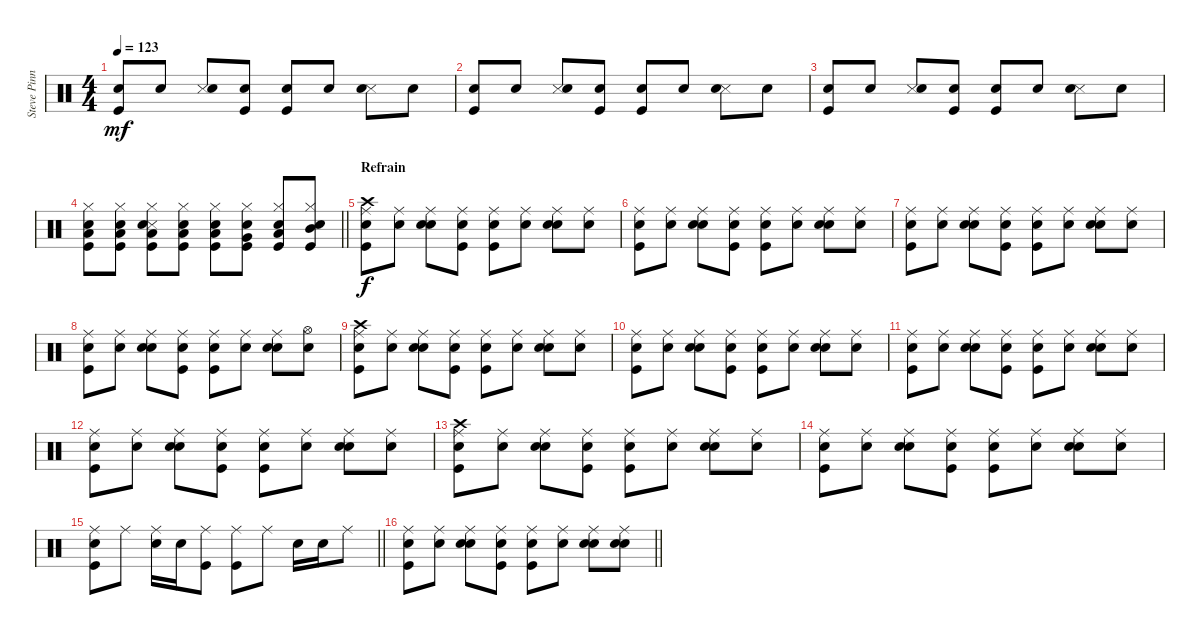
\track ("Steve Pinnell - Drums" "Steve Pinn") {instrument percussion}
\staff {score}
\articulation defaults
\ts (4 4)
\tempo 123
\clef neutral
\ks c
("Kick (hit)" "Snare (hit)").8{dy mf} "Snare (hit)".8 ("Snare (side stick) 3" "Snare (hit)").8 ("Kick (hit)" "Snare (hit)").8 ("Kick (hit)" "Snare (hit)").8 "Snare (hit)".8 ("Snare (side stick) 3" "Snare (hit)").8 "Snare (hit)".8 |
("Kick (hit)" "Snare (hit)").8 "Snare (hit)".8 ("Snare (side stick) 3" "Snare (hit)").8 ("Kick (hit)" "Snare (hit)").8 ("Kick (hit)" "Snare (hit)").8 "Snare (hit)".8 ("Snare (side stick) 3" "Snare (hit)").8 "Snare (hit)".8 |
("Kick (hit)" "Snare (hit)").8 "Snare (hit)".8 ("Snare (side stick) 3" "Snare (hit)").8 ("Kick (hit)" "Snare (hit)").8 ("Kick (hit)" "Snare (hit)").8 "Snare (hit)".8 ("Snare (side stick) 3" "Snare (hit)").8 "Snare (hit)".8 |
\barLineRight lightlight
("Low Floor Tom (hit)" "Kick (hit)" "Hi-Hat (closed)" "Snare (hit)").8 ("Low Floor Tom (hit)" "Kick (hit)" "Hi-Hat (closed)" "Snare (hit)").8 ("Snare (side stick) 3" "Low Floor Tom (hit)" "Kick (hit)" "Hi-Hat (closed)" "Snare (hit)").8 ("Low Floor Tom (hit)" "Kick (hit)" "Hi-Hat (closed)" "Snare (hit)").8 ("Low Floor Tom (hit)" "Kick (hit)" "Hi-Hat (closed)" "Snare (hit)").8 ("Very Low Tom (hit)" "Kick (hit)" "Hi-Hat (closed)" "Snare (hit)").8 ("Low Tom (hit)" "Kick (hit)" "Hi-Hat (closed)" "Snare (hit)").8 ("Mid Tom (hit)" "Kick (hit)" "Hi-Hat (closed)" "Snare (hit)").8 |
\section ("" "Refrain")
("Crash high (hit)" "Kick (hit)" "Ride (middle)" "Snare (hit)").8{dy f volume 14 balance 8} ("Ride (middle)" "Snare (hit)").8 ("Metronome (bell)" "Ride (middle)" "Snare (hit)").8 ("Kick (hit)" "Ride (middle)" "Snare (hit)").8 ("Kick (hit)" "Ride (middle)" "Snare (hit)").8 ("Ride (middle)" "Snare (hit)").8 ("Metronome (bell)" "Ride (middle)" "Snare (hit)").8 ("Ride (middle)" "Snare (hit)").8 |
("Kick (hit)" "Ride (middle)" "Snare (hit)").8 ("Ride (middle)" "Snare (hit)").8 ("Metronome (bell)" "Ride (middle)" "Snare (hit)").8 ("Kick (hit)" "Ride (middle)" "Snare (hit)").8 ("Kick (hit)" "Ride (middle)" "Snare (hit)").8 ("Ride (middle)" "Snare (hit)").8 ("Metronome (bell)" "Ride (middle)" "Snare (hit)").8 ("Ride (middle)" "Snare (hit)").8 |
("Kick (hit)" "Ride (middle)" "Snare (hit)").8 ("Ride (middle)" "Snare (hit)").8 ("Metronome (bell)" "Ride (middle)" "Snare (hit)").8 ("Kick (hit)" "Ride (middle)" "Snare (hit)").8 ("Kick (hit)" "Ride (middle)" "Snare (hit)").8 ("Ride (middle)" "Snare (hit)").8 ("Metronome (bell)" "Ride (middle)" "Snare (hit)").8 ("Ride (middle)" "Snare (hit)").8 |
("Kick (hit)" "Ride (middle)" "Snare (hit)").8 ("Ride (middle)" "Snare (hit)").8 ("Metronome (bell)" "Ride (middle)" "Snare (hit)").8 ("Kick (hit)" "Ride (middle)" "Snare (hit)").8 ("Kick (hit)" "Ride (middle)" "Snare (hit)").8 ("Ride (middle)" "Snare (hit)").8 ("Metronome (bell)" "Ride (middle)" "Snare (hit)").8 ("Hi-Hat (open)" "Snare (hit)").8 |
("Crash high (hit)" "Kick (hit)" "Ride (middle)" "Snare (hit)").8 ("Ride (middle)" "Snare (hit)").8 ("Metronome (bell)" "Ride (middle)" "Snare (hit)").8 ("Kick (hit)" "Ride (middle)" "Snare (hit)").8 ("Kick (hit)" "Ride (middle)" "Snare (hit)").8 ("Ride (middle)" "Snare (hit)").8 ("Metronome (bell)" "Ride (middle)" "Snare (hit)").8 ("Ride (middle)" "Snare (hit)").8 |
("Kick (hit)" "Ride (middle)" "Snare (hit)").8 ("Ride (middle)" "Snare (hit)").8 ("Metronome (bell)" "Ride (middle)" "Snare (hit)").8 ("Kick (hit)" "Ride (middle)" "Snare (hit)").8 ("Kick (hit)" "Ride (middle)" "Snare (hit)").8 ("Ride (middle)" "Snare (hit)").8 ("Metronome (bell)" "Ride (middle)" "Snare (hit)").8 ("Ride (middle)" "Snare (hit)").8 |
("Kick (hit)" "Ride (middle)" "Snare (hit)").8 ("Ride (middle)" "Snare (hit)").8 ("Metronome (bell)" "Ride (middle)" "Snare (hit)").8 ("Kick (hit)" "Ride (middle)" "Snare (hit)").8 ("Kick (hit)" "Ride (middle)" "Snare (hit)").8 ("Ride (middle)" "Snare (hit)").8 ("Metronome (bell)" "Ride (middle)" "Snare (hit)").8 ("Ride (middle)" "Snare (hit)").8 |
("Kick (hit)" "Ride (middle)" "Snare (hit)").8 ("Ride (middle)" "Snare (hit)").8 ("Metronome (bell)" "Ride (middle)" "Snare (hit)").8 ("Kick (hit)" "Ride (middle)" "Snare (hit)").8 ("Kick (hit)" "Ride (middle)" "Snare (hit)").8 ("Ride (middle)" "Snare (hit)").8 ("Metronome (bell)" "Ride (middle)" "Snare (hit)").8 ("Ride (middle)" "Snare (hit)").8 |
("Crash high (hit)" "Kick (hit)" "Ride (middle)" "Snare (hit)").8 ("Ride (middle)" "Snare (hit)").8 ("Metronome (bell)" "Ride (middle)" "Snare (hit)").8 ("Kick (hit)" "Ride (middle)" "Snare (hit)").8 ("Kick (hit)" "Ride (middle)" "Snare (hit)").8 ("Ride (middle)" "Snare (hit)").8 ("Metronome (bell)" "Ride (middle)" "Snare (hit)").8 ("Ride (middle)" "Snare (hit)").8 |
("Kick (hit)" "Ride (middle)" "Snare (hit)").8 ("Ride (middle)" "Snare (hit)").8 ("Metronome (bell)" "Ride (middle)" "Snare (hit)").8 ("Kick (hit)" "Ride (middle)" "Snare (hit)").8 ("Kick (hit)" "Ride (middle)" "Snare (hit)").8 ("Ride (middle)" "Snare (hit)").8 ("Metronome (bell)" "Ride (middle)" "Snare (hit)").8 ("Ride (middle)" "Snare (hit)").8 |
\barLineRight lightlight
("Kick (hit)" "Ride (middle)" "Snare (hit)").8 "Ride (middle)".8 ("Metronome (bell)" "Ride (middle)").16 "Metronome (bell)".16 ("Kick (hit)" "Ride (middle)").8 ("Kick (hit)" "Ride (middle)").8 "Ride (middle)".8 "Metronome (bell)".16 "Metronome (bell)".16 "Ride (middle)".8 |
\barLineRight lightlight
("Kick (hit)" "Ride (middle)" "Snare (hit)").8 ("Ride (middle)" "Snare (hit)").8 ("Metronome (bell)" "Ride (middle)" "Snare (hit)").8 ("Kick (hit)" "Ride (middle)" "Snare (hit)").8 ("Kick (hit)" "Ride (middle)" "Snare (hit)").8 ("Ride (middle)" "Snare (hit)").8 ("Metronome (bell)" "Ride (middle)" "Snare (hit)").8 ("Metronome (bell)" "Ride (middle)" "Snare (hit)").8
